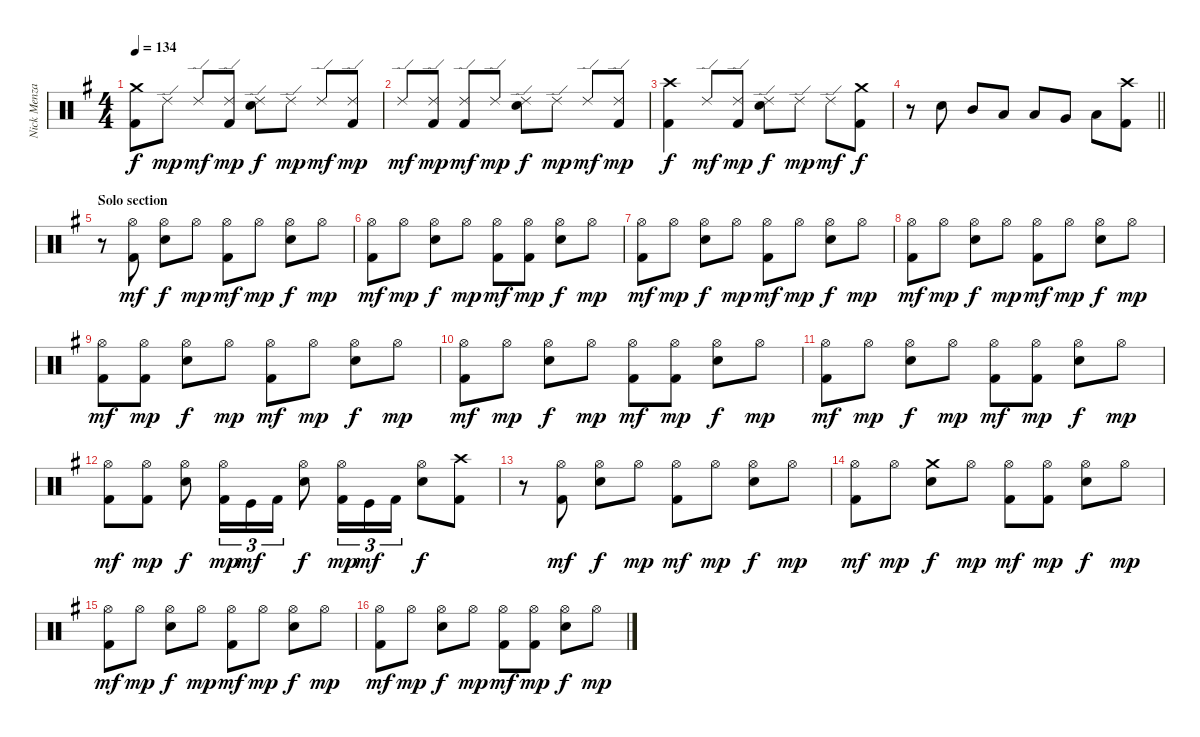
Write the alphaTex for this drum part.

\track ("Nick Menza" "Nick Menza") {instrument percussion}
\staff {score}
\articulation defaults
\ts (4 4)
\tempo 134
\clef neutral
\ks eminor
("Crash medium (hit)" "Kick (hit) 2").8{dy f} "Ride (edge) 2".8{dy mp} "Ride (edge) 2".8{dy mf} ("Ride (edge) 2" "Kick (hit) 2").8{dy mp} ("Ride (edge) 2" "Snare (hit) 2").8{dy f} "Ride (edge) 2".8{dy mp} "Ride (edge) 2".8{dy mf} ("Ride (edge) 2" "Kick (hit) 2").8{dy mp} |
"Ride (edge) 2".8{dy mf} ("Ride (edge) 2" "Kick (hit) 2").8{dy mp} ("Ride (edge) 2" "Kick (hit) 2").8{dy mf} "Ride (edge) 2".8{dy mp} ("Ride (edge) 2" "Snare (hit) 2").8{dy f} "Ride (edge) 2".8{dy mp} "Ride (edge) 2".8{dy mf} ("Ride (edge) 2" "Kick (hit) 2").8{dy mp} |
("Crash high (hit)" "Kick (hit) 2").4{dy f} "Ride (edge) 2".8{dy mf} ("Ride (edge) 2" "Kick (hit) 2").8{dy mp} ("Ride (edge) 2" "Snare (hit) 2").8{dy f} "Ride (edge) 2".8{dy mp} "Ride (edge) 2".8{dy mf} ("Crash medium (hit)" "Kick (hit) 2").8{dy f} |
\barLineRight lightlight
r.8 "Snare (hit) 2".8 "Mid Tom (hit)".8 "Low Tom (hit)".8 "Low Tom (hit)".8 "Very Low Tom (hit)".8 "Low Floor Tom (hit)".8 ("Crash high (hit)" "Kick (hit) 2").8 |
\section ("" "Solo section")
r.8 ("Hi-Hat (open)" "Kick (hit) 2").8{dy mf} ("Hi-Hat (open)" "Snare (hit) 2").8{dy f} "Hi-Hat (open)".8{dy mp} ("Hi-Hat (open)" "Kick (hit) 2").8{dy mf} "Hi-Hat (open)".8{dy mp} ("Hi-Hat (open)" "Snare (hit) 2").8{dy f} "Hi-Hat (open)".8{dy mp} |
("Hi-Hat (open)" "Kick (hit) 2").8{dy mf} "Hi-Hat (open)".8{dy mp} ("Hi-Hat (open)" "Snare (hit) 2").8{dy f} "Hi-Hat (open)".8{dy mp} ("Hi-Hat (open)" "Kick (hit) 2").8{dy mf} ("Hi-Hat (open)" "Kick (hit) 2").8{dy mp} ("Hi-Hat (open)" "Snare (hit) 2").8{dy f} "Hi-Hat (open)".8{dy mp} |
("Hi-Hat (open)" "Kick (hit) 2").8{dy mf} "Hi-Hat (open)".8{dy mp} ("Hi-Hat (open)" "Snare (hit) 2").8{dy f} "Hi-Hat (open)".8{dy mp} ("Hi-Hat (open)" "Kick (hit) 2").8{dy mf} "Hi-Hat (open)".8{dy mp} ("Hi-Hat (open)" "Snare (hit) 2").8{dy f} "Hi-Hat (open)".8{dy mp} |
("Hi-Hat (open)" "Kick (hit) 2").8{dy mf} "Hi-Hat (open)".8{dy mp} ("Hi-Hat (open)" "Snare (hit) 2").8{dy f} "Hi-Hat (open)".8{dy mp} ("Hi-Hat (open)" "Kick (hit) 2").8{dy mf} "Hi-Hat (open)".8{dy mp} ("Hi-Hat (open)" "Snare (hit) 2").8{dy f} "Hi-Hat (open)".8{dy mp} |
("Hi-Hat (open)" "Kick (hit) 2").8{dy mf} ("Hi-Hat (open)" "Kick (hit) 2").8{dy mp} ("Hi-Hat (open)" "Snare (hit) 2").8{dy f} "Hi-Hat (open)".8{dy mp} ("Hi-Hat (open)" "Kick (hit) 2").8{dy mf} "Hi-Hat (open)".8{dy mp} ("Hi-Hat (open)" "Snare (hit) 2").8{dy f} "Hi-Hat (open)".8{dy mp} |
("Hi-Hat (open)" "Kick (hit) 2").8{dy mf} "Hi-Hat (open)".8{dy mp} ("Hi-Hat (open)" "Snare (hit) 2").8{dy f} "Hi-Hat (open)".8{dy mp} ("Hi-Hat (open)" "Kick (hit) 2").8{dy mf} ("Hi-Hat (open)" "Kick (hit) 2").8{dy mp} ("Hi-Hat (open)" "Snare (hit) 2").8{dy f} "Hi-Hat (open)".8{dy mp} |
("Hi-Hat (open)" "Kick (hit) 2").8{dy mf} "Hi-Hat (open)".8{dy mp} ("Hi-Hat (open)" "Snare (hit) 2").8{dy f} "Hi-Hat (open)".8{dy mp} ("Hi-Hat (open)" "Kick (hit) 2").8{dy mf} ("Hi-Hat (open)" "Kick (hit) 2").8{dy mp} ("Hi-Hat (open)" "Snare (hit) 2").8{dy f} "Hi-Hat (open)".8{dy mp} |
("Hi-Hat (open)" "Kick (hit) 2").8{dy mf} ("Hi-Hat (open)" "Kick (hit) 2").8{dy mp} ("Hi-Hat (open)" "Snare (hit) 2").8{dy f} ("Hi-Hat (open)" "Kick (hit) 2").16{tu (3 2) dy mp} "Kick (hit)".16{tu (3 2) dy mf} "Kick (hit) 2".16{tu (3 2)} ("Hi-Hat (open)" "Snare (hit) 2").8{dy f} ("Hi-Hat (open)" "Kick (hit) 2").16{tu (3 2) dy mp} "Kick (hit)".16{tu (3 2) dy mf} "Kick (hit) 2".16{tu (3 2)} ("Hi-Hat (open)" "Snare (hit) 2").8{dy f} ("Crash high (hit)" "Kick (hit) 2").8 |
r.8 ("Hi-Hat (open)" "Kick (hit) 2").8{dy mf} ("Hi-Hat (open)" "Snare (hit) 2").8{dy f} "Hi-Hat (open)".8{dy mp} ("Hi-Hat (open)" "Kick (hit) 2").8{dy mf} "Hi-Hat (open)".8{dy mp} ("Hi-Hat (open)" "Snare (hit) 2").8{dy f} "Hi-Hat (open)".8{dy mp} |
("Hi-Hat (open)" "Kick (hit) 2").8{dy mf} "Hi-Hat (open)".8{dy mp} ("Crash medium (hit)" "Snare (hit) 2").8{dy f} "Hi-Hat (open)".8{dy mp} ("Hi-Hat (open)" "Kick (hit) 2").8{dy mf} ("Hi-Hat (open)" "Kick (hit) 2").8{dy mp} ("Hi-Hat (open)" "Snare (hit) 2").8{dy f} "Hi-Hat (open)".8{dy mp} |
("Hi-Hat (open)" "Kick (hit) 2").8{dy mf} "Hi-Hat (open)".8{dy mp} ("Hi-Hat (open)" "Snare (hit) 2").8{dy f} "Hi-Hat (open)".8{dy mp} ("Hi-Hat (open)" "Kick (hit) 2").8{dy mf} "Hi-Hat (open)".8{dy mp} ("Hi-Hat (open)" "Snare (hit) 2").8{dy f} "Hi-Hat (open)".8{dy mp} |
("Hi-Hat (open)" "Kick (hit) 2").8{dy mf} "Hi-Hat (open)".8{dy mp} ("Hi-Hat (open)" "Snare (hit) 2").8{dy f} "Hi-Hat (open)".8{dy mp} ("Hi-Hat (open)" "Kick (hit) 2").8{dy mf} ("Hi-Hat (open)" "Kick (hit) 2").8{dy mp} ("Hi-Hat (open)" "Snare (hit) 2").8{dy f} "Hi-Hat (open)".8{dy mp}
